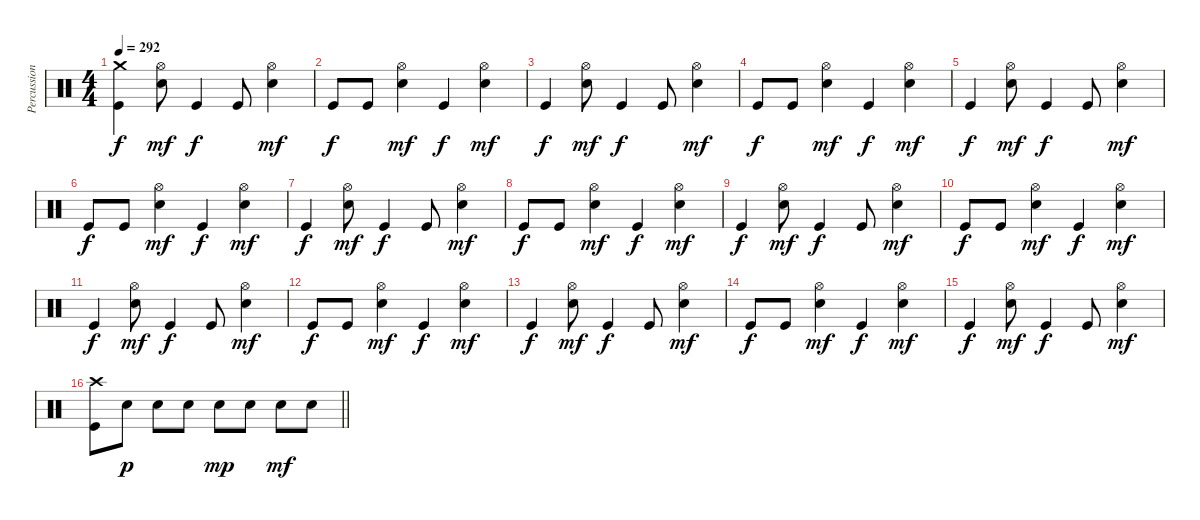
\track ("Percussion" "Percussion") {instrument percussion}
\staff {score}
\articulation defaults
\ts (4 4)
\tempo 292
\clef neutral
\ks c
("Crash medium (hit)" "Kick (hit)").4{dy f} ("Hi-Hat (open)" "Electric Snare (hit)").8{dy mf} "Kick (hit)".4{dy f} "Kick (hit)".8 ("Hi-Hat (open)" "Electric Snare (hit)").4{dy mf} |
"Kick (hit)".8{dy f} "Kick (hit)".8 ("Hi-Hat (open)" "Electric Snare (hit)").4{dy mf} "Kick (hit)".4{dy f} ("Hi-Hat (open)" "Electric Snare (hit)").4{dy mf} |
"Kick (hit)".4{dy f} ("Hi-Hat (open)" "Electric Snare (hit)").8{dy mf} "Kick (hit)".4{dy f} "Kick (hit)".8 ("Hi-Hat (open)" "Electric Snare (hit)").4{dy mf} |
"Kick (hit)".8{dy f} "Kick (hit)".8 ("Hi-Hat (open)" "Electric Snare (hit)").4{dy mf} "Kick (hit)".4{dy f} ("Hi-Hat (open)" "Electric Snare (hit)").4{dy mf} |
"Kick (hit)".4{dy f} ("Hi-Hat (open)" "Electric Snare (hit)").8{dy mf} "Kick (hit)".4{dy f} "Kick (hit)".8 ("Hi-Hat (open)" "Electric Snare (hit)").4{dy mf} |
"Kick (hit)".8{dy f} "Kick (hit)".8 ("Hi-Hat (open)" "Electric Snare (hit)").4{dy mf} "Kick (hit)".4{dy f} ("Hi-Hat (open)" "Electric Snare (hit)").4{dy mf} |
"Kick (hit)".4{dy f} ("Hi-Hat (open)" "Electric Snare (hit)").8{dy mf} "Kick (hit)".4{dy f} "Kick (hit)".8 ("Hi-Hat (open)" "Electric Snare (hit)").4{dy mf} |
"Kick (hit)".8{dy f} "Kick (hit)".8 ("Hi-Hat (open)" "Electric Snare (hit)").4{dy mf} "Kick (hit)".4{dy f} ("Hi-Hat (open)" "Electric Snare (hit)").4{dy mf} |
"Kick (hit)".4{dy f} ("Hi-Hat (open)" "Electric Snare (hit)").8{dy mf} "Kick (hit)".4{dy f} "Kick (hit)".8 ("Hi-Hat (open)" "Electric Snare (hit)").4{dy mf} |
"Kick (hit)".8{dy f} "Kick (hit)".8 ("Hi-Hat (open)" "Electric Snare (hit)").4{dy mf} "Kick (hit)".4{dy f} ("Hi-Hat (open)" "Electric Snare (hit)").4{dy mf} |
"Kick (hit)".4{dy f} ("Hi-Hat (open)" "Electric Snare (hit)").8{dy mf} "Kick (hit)".4{dy f} "Kick (hit)".8 ("Hi-Hat (open)" "Electric Snare (hit)").4{dy mf} |
"Kick (hit)".8{dy f} "Kick (hit)".8 ("Hi-Hat (open)" "Electric Snare (hit)").4{dy mf} "Kick (hit)".4{dy f} ("Hi-Hat (open)" "Electric Snare (hit)").4{dy mf} |
"Kick (hit)".4{dy f} ("Hi-Hat (open)" "Electric Snare (hit)").8{dy mf} "Kick (hit)".4{dy f} "Kick (hit)".8 ("Hi-Hat (open)" "Electric Snare (hit)").4{dy mf} |
"Kick (hit)".8{dy f} "Kick (hit)".8 ("Hi-Hat (open)" "Electric Snare (hit)").4{dy mf} "Kick (hit)".4{dy f} ("Hi-Hat (open)" "Electric Snare (hit)").4{dy mf} |
"Kick (hit)".4{dy f} ("Hi-Hat (open)" "Electric Snare (hit)").8{dy mf} "Kick (hit)".4{dy f} "Kick (hit)".8 ("Hi-Hat (open)" "Electric Snare (hit)").4{dy mf} |
\barLineRight lightlight
("Crash high (hit)" "Kick (hit)").8 "Electric Snare (hit)".8{dy p} "Electric Snare (hit)".8 "Electric Snare (hit)".8 "Electric Snare (hit)".8{dy mp} "Electric Snare (hit)".8 "Electric Snare (hit)".8{dy mf} "Electric Snare (hit)".8
